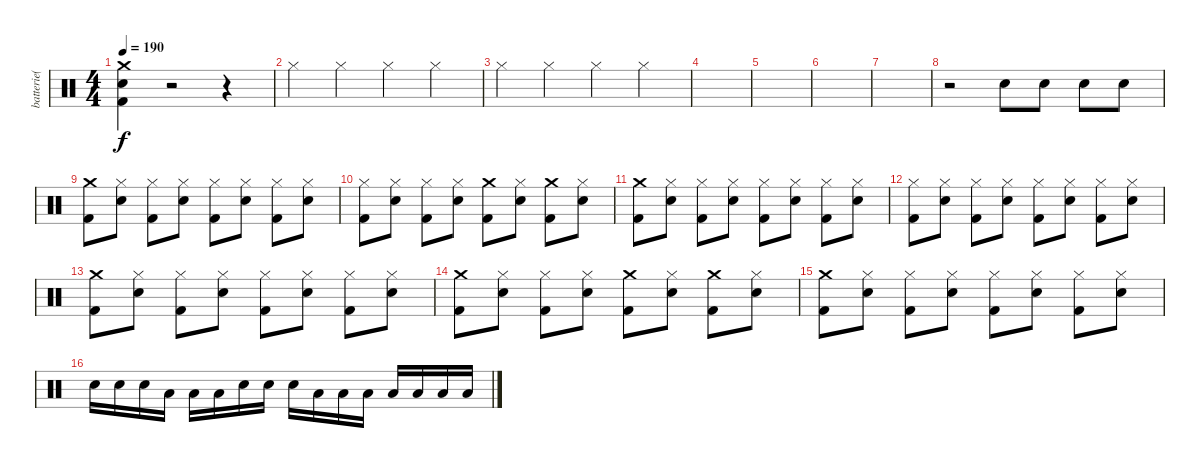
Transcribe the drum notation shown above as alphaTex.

\track ("batterie( Byron McMackin )" "batterie( ") {instrument percussion}
\staff {score}
\articulation defaults
\ts (4 4)
\tempo 190
\clef neutral
\ks c
("Crash medium (hit)" "Snare (hit) 2" "Kick (hit) 2").4{dy f} r.2 r.4 |
"Hi-Hat (closed)".4 "Hi-Hat (closed)".4 "Hi-Hat (closed)".4 "Hi-Hat (closed)".4 |
"Hi-Hat (closed)".4 "Hi-Hat (closed)".4 "Hi-Hat (closed)".4 "Hi-Hat (closed)".4 |
|
|
|
|
r.2 "Snare (hit) 2".8 "Snare (hit) 2".8 "Snare (hit) 2".8 "Snare (hit) 2".8 |
("Crash medium (hit)" "Kick (hit) 2").8 ("Hi-Hat (closed)" "Snare (hit) 2").8 ("Hi-Hat (closed)" "Kick (hit) 2").8 ("Hi-Hat (closed)" "Snare (hit) 2").8 ("Hi-Hat (closed)" "Kick (hit) 2").8 ("Hi-Hat (closed)" "Snare (hit) 2").8 ("Hi-Hat (closed)" "Kick (hit) 2").8 ("Hi-Hat (closed)" "Snare (hit) 2").8 |
("Hi-Hat (closed)" "Kick (hit) 2").8 ("Hi-Hat (closed)" "Snare (hit) 2").8 ("Hi-Hat (closed)" "Kick (hit) 2").8 ("Hi-Hat (closed)" "Snare (hit) 2").8 ("Crash medium (hit)" "Kick (hit) 2").8 ("Hi-Hat (closed)" "Snare (hit) 2").8 ("Crash medium (hit)" "Kick (hit) 2").8 ("Hi-Hat (closed)" "Snare (hit) 2").8 |
("Crash medium (hit)" "Kick (hit) 2").8 ("Hi-Hat (closed)" "Snare (hit) 2").8 ("Hi-Hat (closed)" "Kick (hit) 2").8 ("Hi-Hat (closed)" "Snare (hit) 2").8 ("Hi-Hat (closed)" "Kick (hit) 2").8 ("Hi-Hat (closed)" "Snare (hit) 2").8 ("Hi-Hat (closed)" "Kick (hit) 2").8 ("Hi-Hat (closed)" "Snare (hit) 2").8 |
("Hi-Hat (closed)" "Kick (hit) 2").8 ("Hi-Hat (closed)" "Snare (hit) 2").8 ("Hi-Hat (closed)" "Kick (hit) 2").8 ("Hi-Hat (closed)" "Snare (hit) 2").8 ("Hi-Hat (closed)" "Kick (hit) 2").8 ("Hi-Hat (closed)" "Snare (hit) 2").8 ("Hi-Hat (closed)" "Kick (hit) 2").8 ("Hi-Hat (closed)" "Snare (hit) 2").8 |
("Crash medium (hit)" "Kick (hit) 2").8 ("Hi-Hat (closed)" "Snare (hit) 2").8 ("Hi-Hat (closed)" "Kick (hit) 2").8 ("Hi-Hat (closed)" "Snare (hit) 2").8 ("Hi-Hat (closed)" "Kick (hit) 2").8 ("Hi-Hat (closed)" "Snare (hit) 2").8 ("Hi-Hat (closed)" "Kick (hit) 2").8 ("Hi-Hat (closed)" "Snare (hit) 2").8 |
("Crash medium (hit)" "Kick (hit) 2").8 ("Hi-Hat (closed)" "Snare (hit) 2").8 ("Hi-Hat (closed)" "Kick (hit) 2").8 ("Hi-Hat (closed)" "Snare (hit) 2").8 ("Crash medium (hit)" "Kick (hit) 2").8 ("Hi-Hat (closed)" "Snare (hit) 2").8 ("Crash medium (hit)" "Kick (hit) 2").8 ("Hi-Hat (closed)" "Snare (hit) 2").8 |
("Crash medium (hit)" "Kick (hit) 2").8 ("Hi-Hat (closed)" "Snare (hit) 2").8 ("Hi-Hat (closed)" "Kick (hit) 2").8 ("Hi-Hat (closed)" "Snare (hit) 2").8 ("Hi-Hat (closed)" "Kick (hit) 2").8 ("Hi-Hat (closed)" "Snare (hit) 2").8 ("Hi-Hat (closed)" "Kick (hit) 2").8 ("Hi-Hat (closed)" "Snare (hit) 2").8 |
"Snare (hit) 2".16 "Snare (hit) 2".16 "Snare (hit) 2".16 "Low Tom (hit)".16 "Low Tom (hit)".16 "Low Tom (hit)".16 "Snare (hit) 2".16 "Snare (hit) 2".16 "Snare (hit) 2".16 "Low Tom (hit)".16 "Low Tom (hit)".16 "Low Tom (hit)".16 "Low Tom (hit)".16 "Low Floor Tom (hit)".16 "Low Floor Tom (hit)".16 "Low Floor Tom (hit)".16
